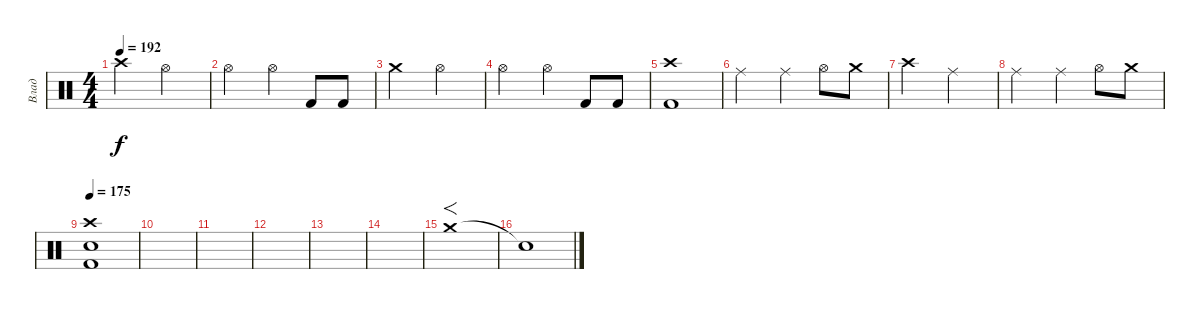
\track ("Влад" "Влад") {instrument percussion}
\staff {score}
\articulation defaults
\ts (4 4)
\tempo 192
\clef neutral
\ks c "Crash high (hit)".2{dy f} "Hi-Hat (open)".2
|
"Hi-Hat (open)".2 "Hi-Hat (open)".4 "Kick (hit) 2".8 "Kick (hit) 2".8 |
"Crash medium (hit)".2 "Hi-Hat (open)".2 |
"Hi-Hat (open)".2 "Hi-Hat (open)".4 "Kick (hit) 2".8 "Kick (hit) 2".8 |
("Crash high (hit)" "Kick (hit) 2").1 |
"Ride (middle)".2 "Ride (middle)".4 "Hi-Hat (open)".8 "Crash medium (hit)".8 |
"Crash high (hit)".2 "Ride (middle)".2 |
"Ride (middle)".2 "Ride (middle)".4 "Hi-Hat (open)".8 "Crash medium (hit)".8 |
\tempo 175
("Crash high (hit)" "Snare (hit) 2" "Kick (hit) 2").1 |
|
|
|
|
|
"Crash medium (hit)".1{f} |
"Snare (hit)"{t}.1
